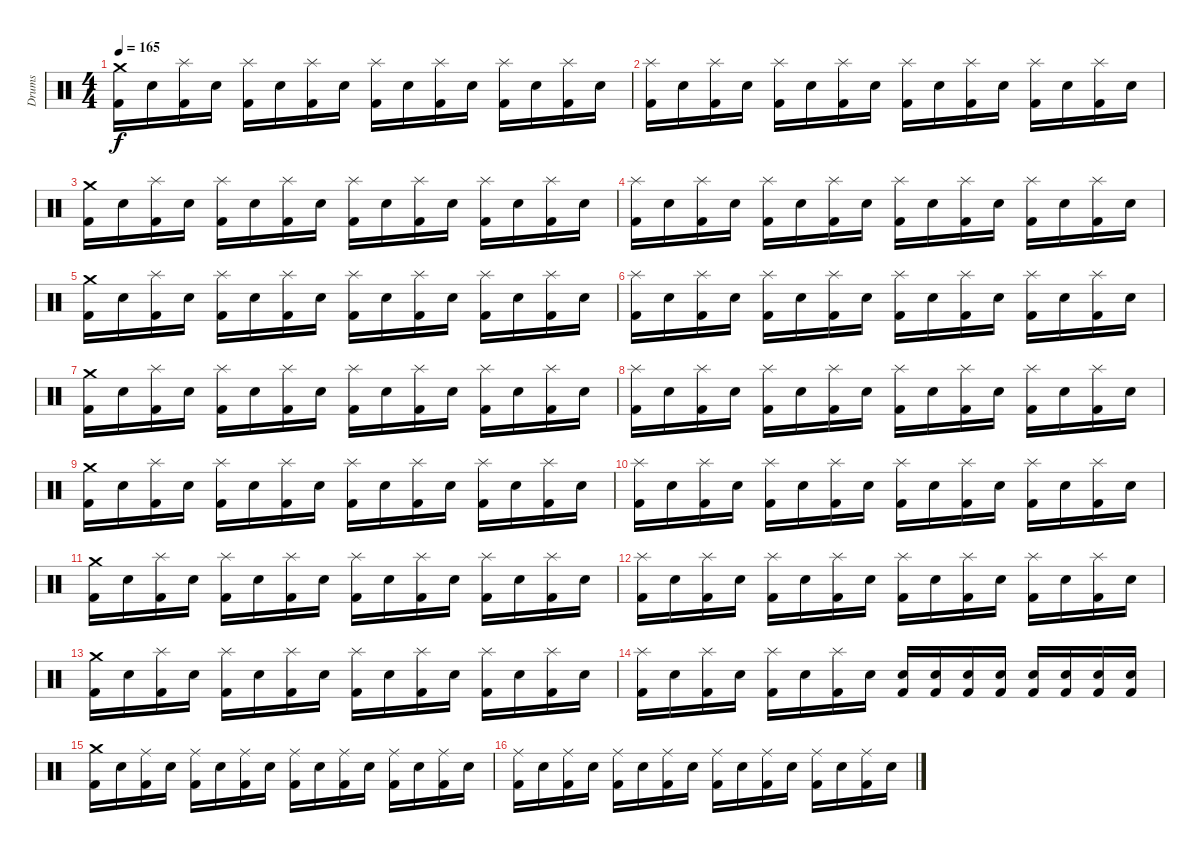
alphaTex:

\track ("Drums" "Drums") {instrument percussion}
\staff {score}
\articulation defaults
\ts (4 4)
\tempo 165
\clef neutral
\ks c
("Crash medium (hit)" "Kick (hit) 2").16{dy f} "Snare (hit) 2".16 ("Splash (hit)" "Kick (hit) 2").16 "Snare (hit) 2".16 ("Splash (hit)" "Kick (hit) 2").16 "Snare (hit) 2".16 ("Splash (hit)" "Kick (hit) 2").16 "Snare (hit) 2".16 ("Splash (hit)" "Kick (hit) 2").16 "Snare (hit) 2".16 ("Splash (hit)" "Kick (hit) 2").16 "Snare (hit) 2".16 ("Splash (hit)" "Kick (hit) 2").16 "Snare (hit) 2".16 ("Splash (hit)" "Kick (hit) 2").16 "Snare (hit) 2".16 |
("Splash (hit)" "Kick (hit) 2").16 "Snare (hit) 2".16 ("Splash (hit)" "Kick (hit) 2").16 "Snare (hit) 2".16 ("Splash (hit)" "Kick (hit) 2").16 "Snare (hit) 2".16 ("Splash (hit)" "Kick (hit) 2").16 "Snare (hit) 2".16 ("Splash (hit)" "Kick (hit) 2").16 "Snare (hit) 2".16 ("Splash (hit)" "Kick (hit) 2").16 "Snare (hit) 2".16 ("Splash (hit)" "Kick (hit) 2").16 "Snare (hit) 2".16 ("Splash (hit)" "Kick (hit) 2").16 "Snare (hit) 2".16 |
("Crash medium (hit)" "Kick (hit) 2").16 "Snare (hit) 2".16 ("Splash (hit)" "Kick (hit) 2").16 "Snare (hit) 2".16 ("Splash (hit)" "Kick (hit) 2").16 "Snare (hit) 2".16 ("Splash (hit)" "Kick (hit) 2").16 "Snare (hit) 2".16 ("Splash (hit)" "Kick (hit) 2").16 "Snare (hit) 2".16 ("Splash (hit)" "Kick (hit) 2").16 "Snare (hit) 2".16 ("Splash (hit)" "Kick (hit) 2").16 "Snare (hit) 2".16 ("Splash (hit)" "Kick (hit) 2").16 "Snare (hit) 2".16 |
("Splash (hit)" "Kick (hit) 2").16 "Snare (hit) 2".16 ("Splash (hit)" "Kick (hit) 2").16 "Snare (hit) 2".16 ("Splash (hit)" "Kick (hit) 2").16 "Snare (hit) 2".16 ("Splash (hit)" "Kick (hit) 2").16 "Snare (hit) 2".16 ("Splash (hit)" "Kick (hit) 2").16 "Snare (hit) 2".16 ("Splash (hit)" "Kick (hit) 2").16 "Snare (hit) 2".16 ("Splash (hit)" "Kick (hit) 2").16 "Snare (hit) 2".16 ("Splash (hit)" "Kick (hit) 2").16 "Snare (hit) 2".16 |
("Crash medium (hit)" "Kick (hit) 2").16 "Snare (hit) 2".16 ("Splash (hit)" "Kick (hit) 2").16 "Snare (hit) 2".16 ("Splash (hit)" "Kick (hit) 2").16 "Snare (hit) 2".16 ("Splash (hit)" "Kick (hit) 2").16 "Snare (hit) 2".16 ("Splash (hit)" "Kick (hit) 2").16 "Snare (hit) 2".16 ("Splash (hit)" "Kick (hit) 2").16 "Snare (hit) 2".16 ("Splash (hit)" "Kick (hit) 2").16 "Snare (hit) 2".16 ("Splash (hit)" "Kick (hit) 2").16 "Snare (hit) 2".16 |
("Splash (hit)" "Kick (hit) 2").16 "Snare (hit) 2".16 ("Splash (hit)" "Kick (hit) 2").16 "Snare (hit) 2".16 ("Splash (hit)" "Kick (hit) 2").16 "Snare (hit) 2".16 ("Splash (hit)" "Kick (hit) 2").16 "Snare (hit) 2".16 ("Splash (hit)" "Kick (hit) 2").16 "Snare (hit) 2".16 ("Splash (hit)" "Kick (hit) 2").16 "Snare (hit) 2".16 ("Splash (hit)" "Kick (hit) 2").16 "Snare (hit) 2".16 ("Splash (hit)" "Kick (hit) 2").16 "Snare (hit) 2".16 |
("Crash medium (hit)" "Kick (hit) 2").16 "Snare (hit) 2".16 ("Splash (hit)" "Kick (hit) 2").16 "Snare (hit) 2".16 ("Splash (hit)" "Kick (hit) 2").16 "Snare (hit) 2".16 ("Splash (hit)" "Kick (hit) 2").16 "Snare (hit) 2".16 ("Splash (hit)" "Kick (hit) 2").16 "Snare (hit) 2".16 ("Splash (hit)" "Kick (hit) 2").16 "Snare (hit) 2".16 ("Splash (hit)" "Kick (hit) 2").16 "Snare (hit) 2".16 ("Splash (hit)" "Kick (hit) 2").16 "Snare (hit) 2".16 |
("Splash (hit)" "Kick (hit) 2").16 "Snare (hit) 2".16 ("Splash (hit)" "Kick (hit) 2").16 "Snare (hit) 2".16 ("Splash (hit)" "Kick (hit) 2").16 "Snare (hit) 2".16 ("Splash (hit)" "Kick (hit) 2").16 "Snare (hit) 2".16 ("Splash (hit)" "Kick (hit) 2").16 "Snare (hit) 2".16 ("Splash (hit)" "Kick (hit) 2").16 "Snare (hit) 2".16 ("Splash (hit)" "Kick (hit) 2").16 "Snare (hit) 2".16 ("Splash (hit)" "Kick (hit) 2").16 "Snare (hit) 2".16 |
("Crash medium (hit)" "Kick (hit) 2").16 "Snare (hit) 2".16 ("Splash (hit)" "Kick (hit) 2").16 "Snare (hit) 2".16 ("Splash (hit)" "Kick (hit) 2").16 "Snare (hit) 2".16 ("Splash (hit)" "Kick (hit) 2").16 "Snare (hit) 2".16 ("Splash (hit)" "Kick (hit) 2").16 "Snare (hit) 2".16 ("Splash (hit)" "Kick (hit) 2").16 "Snare (hit) 2".16 ("Splash (hit)" "Kick (hit) 2").16 "Snare (hit) 2".16 ("Splash (hit)" "Kick (hit) 2").16 "Snare (hit) 2".16 |
("Splash (hit)" "Kick (hit) 2").16 "Snare (hit) 2".16 ("Splash (hit)" "Kick (hit) 2").16 "Snare (hit) 2".16 ("Splash (hit)" "Kick (hit) 2").16 "Snare (hit) 2".16 ("Splash (hit)" "Kick (hit) 2").16 "Snare (hit) 2".16 ("Splash (hit)" "Kick (hit) 2").16 "Snare (hit) 2".16 ("Splash (hit)" "Kick (hit) 2").16 "Snare (hit) 2".16 ("Splash (hit)" "Kick (hit) 2").16 "Snare (hit) 2".16 ("Splash (hit)" "Kick (hit) 2").16 "Snare (hit) 2".16 |
("Crash medium (hit)" "Kick (hit) 2").16 "Snare (hit) 2".16 ("Splash (hit)" "Kick (hit) 2").16 "Snare (hit) 2".16 ("Splash (hit)" "Kick (hit) 2").16 "Snare (hit) 2".16 ("Splash (hit)" "Kick (hit) 2").16 "Snare (hit) 2".16 ("Splash (hit)" "Kick (hit) 2").16 "Snare (hit) 2".16 ("Splash (hit)" "Kick (hit) 2").16 "Snare (hit) 2".16 ("Splash (hit)" "Kick (hit) 2").16 "Snare (hit) 2".16 ("Splash (hit)" "Kick (hit) 2").16 "Snare (hit) 2".16 |
("Splash (hit)" "Kick (hit) 2").16 "Snare (hit) 2".16 ("Splash (hit)" "Kick (hit) 2").16 "Snare (hit) 2".16 ("Splash (hit)" "Kick (hit) 2").16 "Snare (hit) 2".16 ("Splash (hit)" "Kick (hit) 2").16 "Snare (hit) 2".16 ("Splash (hit)" "Kick (hit) 2").16 "Snare (hit) 2".16 ("Splash (hit)" "Kick (hit) 2").16 "Snare (hit) 2".16 ("Splash (hit)" "Kick (hit) 2").16 "Snare (hit) 2".16 ("Splash (hit)" "Kick (hit) 2").16 "Snare (hit) 2".16 |
("Crash medium (hit)" "Kick (hit) 2").16 "Snare (hit) 2".16 ("Splash (hit)" "Kick (hit) 2").16 "Snare (hit) 2".16 ("Splash (hit)" "Kick (hit) 2").16 "Snare (hit) 2".16 ("Splash (hit)" "Kick (hit) 2").16 "Snare (hit) 2".16 ("Splash (hit)" "Kick (hit) 2").16 "Snare (hit) 2".16 ("Splash (hit)" "Kick (hit) 2").16 "Snare (hit) 2".16 ("Splash (hit)" "Kick (hit) 2").16 "Snare (hit) 2".16 ("Splash (hit)" "Kick (hit) 2").16 "Snare (hit) 2".16 |
("Splash (hit)" "Kick (hit) 2").16 "Snare (hit) 2".16 ("Splash (hit)" "Kick (hit) 2").16 "Snare (hit) 2".16 ("Splash (hit)" "Kick (hit) 2").16 "Snare (hit) 2".16 ("Splash (hit)" "Kick (hit) 2").16 "Snare (hit) 2".16 ("Snare (hit) 2" "Kick (hit) 2").16 ("Snare (hit) 2" "Kick (hit) 2").16 ("Snare (hit) 2" "Kick (hit) 2").16 ("Snare (hit) 2" "Kick (hit) 2").16 ("Snare (hit) 2" "Kick (hit) 2").16 ("Snare (hit) 2" "Kick (hit) 2").16 ("Snare (hit) 2" "Kick (hit) 2").16 ("Snare (hit) 2" "Kick (hit) 2").16 |
("Crash medium (hit)" "Kick (hit) 2").16 "Snare (hit) 2".16 ("Ride (middle)" "Kick (hit) 2").16 "Snare (hit) 2".16 ("Ride (middle)" "Kick (hit) 2").16 "Snare (hit) 2".16 ("Ride (middle)" "Kick (hit) 2").16 "Snare (hit) 2".16 ("Ride (middle)" "Kick (hit) 2").16 "Snare (hit) 2".16 ("Ride (middle)" "Kick (hit) 2").16 "Snare (hit) 2".16 ("Ride (middle)" "Kick (hit) 2").16 "Snare (hit) 2".16 ("Ride (middle)" "Kick (hit) 2").16 "Snare (hit) 2".16 |
("Ride (middle)" "Kick (hit) 2").16 "Snare (hit) 2".16 ("Ride (middle)" "Kick (hit) 2").16 "Snare (hit) 2".16 ("Ride (middle)" "Kick (hit) 2").16 "Snare (hit) 2".16 ("Ride (middle)" "Kick (hit) 2").16 "Snare (hit) 2".16 ("Ride (middle)" "Kick (hit) 2").16 "Snare (hit) 2".16 ("Ride (middle)" "Kick (hit) 2").16 "Snare (hit) 2".16 ("Ride (middle)" "Kick (hit) 2").16 "Snare (hit) 2".16 ("Ride (middle)" "Kick (hit) 2").16 "Snare (hit) 2".16
